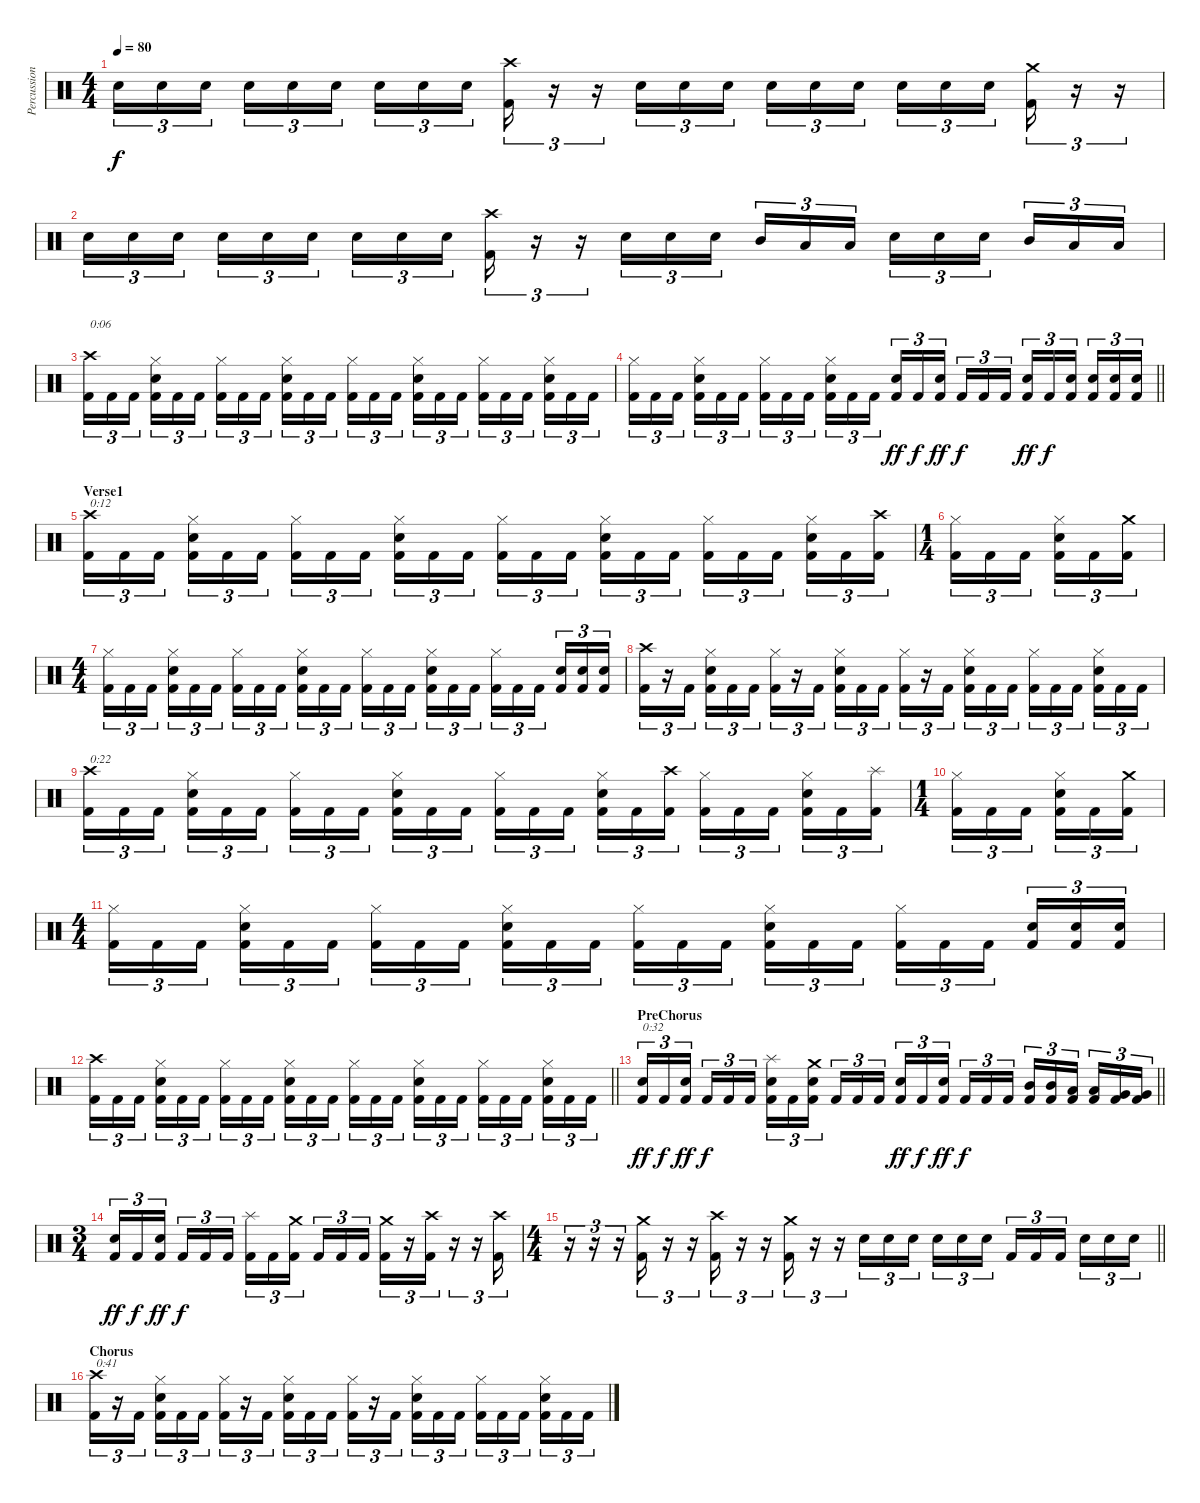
\track ("Percussion" "Percussion") {instrument percussion}
\staff {score}
\articulation defaults
\ts (4 4)
\tempo 80
\clef neutral
\ks c "Snare (hit) 2".16{tu (3 2) dy f} "Snare (hit) 2".16{tu (3 2)} "Snare (hit) 2".16{tu (3 2) beam splitsecondary} "Snare (hit) 2".16{tu (3 2)} "Snare (hit) 2".16{tu (3 2)} "Snare (hit) 2".16{tu (3 2)} "Snare (hit) 2".16{tu (3 2)} "Snare (hit) 2".16{tu (3 2)} "Snare (hit) 2".16{tu (3 2) beam splitsecondary}
("Crash high (hit)" "Kick (hit) 2").16{tu (3 2)} r.16{tu (3 2)} r.16{tu (3 2)} "Snare (hit) 2".16{tu (3 2)} "Snare (hit) 2".16{tu (3 2)} "Snare (hit) 2".16{tu (3 2) beam splitsecondary} "Snare (hit) 2".16{tu (3 2)} "Snare (hit) 2".16{tu (3 2)} "Snare (hit) 2".16{tu (3 2)} "Snare (hit) 2".16{tu (3 2)} "Snare (hit) 2".16{tu (3 2)} "Snare (hit) 2".16{tu (3 2) beam splitsecondary} ("Crash medium (hit)" "Kick (hit) 2").16{tu (3 2)} r.16{tu (3 2)} r.16{tu (3 2)} |
"Snare (hit) 2".16{tu (3 2)} "Snare (hit) 2".16{tu (3 2)} "Snare (hit) 2".16{tu (3 2) beam splitsecondary} "Snare (hit) 2".16{tu (3 2)} "Snare (hit) 2".16{tu (3 2)} "Snare (hit) 2".16{tu (3 2)} "Snare (hit) 2".16{tu (3 2)} "Snare (hit) 2".16{tu (3 2)} "Snare (hit) 2".16{tu (3 2) beam splitsecondary} ("Crash high (hit)" "Kick (hit) 2").16{tu (3 2)} r.16{tu (3 2)} r.16{tu (3 2)} "Snare (hit) 2".16{tu (3 2)} "Snare (hit) 2".16{tu (3 2)} "Snare (hit) 2".16{tu (3 2) beam splitsecondary} "Mid Tom (hit)".16{tu (3 2)} "Low Tom (hit)".16{tu (3 2)} "Low Tom (hit)".16{tu (3 2)} "Snare (hit) 2".16{tu (3 2)} "Snare (hit) 2".16{tu (3 2)} "Snare (hit) 2".16{tu (3 2) beam splitsecondary} "Mid Tom (hit)".16{tu (3 2)} "Low Tom (hit)".16{tu (3 2)} "Low Tom (hit)".16{tu (3 2)} |
("Crash high (hit)" "Kick (hit) 2").16{tu (3 2) txt "0:06"} "Kick (hit) 2".16{tu (3 2)} "Kick (hit) 2".16{tu (3 2) beam splitsecondary} ("Hi-Hat (closed)" "Snare (hit) 2" "Kick (hit) 2").16{tu (3 2)} "Kick (hit) 2".16{tu (3 2)} "Kick (hit) 2".16{tu (3 2)} ("Hi-Hat (closed)" "Kick (hit) 2").16{tu (3 2)} "Kick (hit) 2".16{tu (3 2)} "Kick (hit) 2".16{tu (3 2) beam splitsecondary} ("Hi-Hat (closed)" "Snare (hit) 2" "Kick (hit) 2").16{tu (3 2)} "Kick (hit) 2".16{tu (3 2)} "Kick (hit) 2".16{tu (3 2)} ("Hi-Hat (closed)" "Kick (hit) 2").16{tu (3 2)} "Kick (hit) 2".16{tu (3 2)} "Kick (hit) 2".16{tu (3 2) beam splitsecondary} ("Hi-Hat (closed)" "Snare (hit) 2" "Kick (hit) 2").16{tu (3 2)} "Kick (hit) 2".16{tu (3 2)} "Kick (hit) 2".16{tu (3 2)} ("Hi-Hat (closed)" "Kick (hit) 2").16{tu (3 2)} "Kick (hit) 2".16{tu (3 2)} "Kick (hit) 2".16{tu (3 2) beam splitsecondary} ("Hi-Hat (closed)" "Snare (hit) 2" "Kick (hit) 2").16{tu (3 2)} "Kick (hit) 2".16{tu (3 2)} "Kick (hit) 2".16{tu (3 2)} |
\barLineRight lightlight
("Hi-Hat (closed)" "Kick (hit) 2").16{tu (3 2)} "Kick (hit) 2".16{tu (3 2)} "Kick (hit) 2".16{tu (3 2) beam splitsecondary} ("Hi-Hat (closed)" "Snare (hit) 2" "Kick (hit) 2").16{tu (3 2)} "Kick (hit) 2".16{tu (3 2)} "Kick (hit) 2".16{tu (3 2)} ("Hi-Hat (closed)" "Kick (hit) 2").16{tu (3 2)} "Kick (hit) 2".16{tu (3 2)} "Kick (hit) 2".16{tu (3 2) beam splitsecondary} ("Hi-Hat (closed)" "Snare (hit) 2" "Kick (hit) 2").16{tu (3 2)} "Kick (hit) 2".16{tu (3 2)} "Kick (hit) 2".16{tu (3 2)} ("Snare (hit) 2" "Kick (hit) 2").16{tu (3 2) dy ff} "Kick (hit) 2".16{tu (3 2) dy f} ("Snare (hit) 2" "Kick (hit) 2").16{tu (3 2) dy ff beam splitsecondary} "Kick (hit) 2".16{tu (3 2) dy f} "Kick (hit) 2".16{tu (3 2)} "Kick (hit) 2".16{tu (3 2)} ("Snare (hit) 2" "Kick (hit) 2").16{tu (3 2) dy ff} "Kick (hit) 2".16{tu (3 2) dy f} ("Snare (hit) 2" "Kick (hit) 2").16{tu (3 2) beam splitsecondary} ("Snare (hit) 2" "Kick (hit) 2").16{tu (3 2)} ("Snare (hit) 2" "Kick (hit) 2").16{tu (3 2)} ("Snare (hit) 2" "Kick (hit) 2").16{tu (3 2)} |
\section ("" "Verse1")
("Crash high (hit)" "Kick (hit) 2").16{tu (3 2) txt "0:12"} "Kick (hit) 2".16{tu (3 2)} "Kick (hit) 2".16{tu (3 2) beam splitsecondary} ("Hi-Hat (closed)" "Snare (hit) 2" "Kick (hit) 2").16{tu (3 2)} "Kick (hit) 2".16{tu (3 2)} "Kick (hit) 2".16{tu (3 2)} ("Hi-Hat (closed)" "Kick (hit) 2").16{tu (3 2)} "Kick (hit) 2".16{tu (3 2)} "Kick (hit) 2".16{tu (3 2) beam splitsecondary} ("Hi-Hat (closed)" "Snare (hit) 2" "Kick (hit) 2").16{tu (3 2)} "Kick (hit) 2".16{tu (3 2)} "Kick (hit) 2".16{tu (3 2)} ("Hi-Hat (closed)" "Kick (hit) 2").16{tu (3 2)} "Kick (hit) 2".16{tu (3 2)} "Kick (hit) 2".16{tu (3 2) beam splitsecondary} ("Hi-Hat (closed)" "Snare (hit) 2" "Kick (hit) 2").16{tu (3 2)} "Kick (hit) 2".16{tu (3 2)} "Kick (hit) 2".16{tu (3 2)} ("Hi-Hat (closed)" "Kick (hit) 2").16{tu (3 2)} "Kick (hit) 2".16{tu (3 2)} "Kick (hit) 2".16{tu (3 2) beam splitsecondary} ("Hi-Hat (closed)" "Snare (hit) 2" "Kick (hit) 2").16{tu (3 2)} "Kick (hit) 2".16{tu (3 2)} ("Crash high (hit)" "Kick (hit) 2").16{tu (3 2)} |
\ts (1 4)
("Hi-Hat (closed)" "Kick (hit) 2").16{tu (3 2)} "Kick (hit) 2".16{tu (3 2)} "Kick (hit) 2".16{tu (3 2) beam splitsecondary} ("Hi-Hat (closed)" "Snare (hit) 2" "Kick (hit) 2").16{tu (3 2)} "Kick (hit) 2".16{tu (3 2)} ("Crash medium (hit)" "Kick (hit) 2").16{tu (3 2)} |
\ts (4 4)
("Hi-Hat (closed)" "Kick (hit) 2").16{tu (3 2)} "Kick (hit) 2".16{tu (3 2)} "Kick (hit) 2".16{tu (3 2) beam splitsecondary} ("Hi-Hat (closed)" "Snare (hit) 2" "Kick (hit) 2").16{tu (3 2)} "Kick (hit) 2".16{tu (3 2)} "Kick (hit) 2".16{tu (3 2)} ("Hi-Hat (closed)" "Kick (hit) 2").16{tu (3 2)} "Kick (hit) 2".16{tu (3 2)} "Kick (hit) 2".16{tu (3 2) beam splitsecondary} ("Hi-Hat (closed)" "Snare (hit) 2" "Kick (hit) 2").16{tu (3 2)} "Kick (hit) 2".16{tu (3 2)} "Kick (hit) 2".16{tu (3 2)} ("Hi-Hat (closed)" "Kick (hit) 2").16{tu (3 2)} "Kick (hit) 2".16{tu (3 2)} "Kick (hit) 2".16{tu (3 2) beam splitsecondary} ("Hi-Hat (closed)" "Snare (hit) 2" "Kick (hit) 2").16{tu (3 2)} "Kick (hit) 2".16{tu (3 2)} "Kick (hit) 2".16{tu (3 2)} ("Hi-Hat (closed)" "Kick (hit) 2").16{tu (3 2)} "Kick (hit) 2".16{tu (3 2)} "Kick (hit) 2".16{tu (3 2) beam splitsecondary} ("Snare (hit) 2" "Kick (hit) 2").16{tu (3 2)} ("Snare (hit) 2" "Kick (hit) 2").16{tu (3 2)} ("Snare (hit) 2" "Kick (hit) 2").16{tu (3 2)} |
("Crash high (hit)" "Kick (hit) 2").16{tu (3 2)} r.16{tu (3 2)} "Kick (hit) 2".16{tu (3 2) beam splitsecondary} ("Hi-Hat (closed)" "Snare (hit) 2" "Kick (hit) 2").16{tu (3 2)} "Kick (hit) 2".16{tu (3 2)} "Kick (hit) 2".16{tu (3 2)} ("Hi-Hat (closed)" "Kick (hit) 2").16{tu (3 2)} r.16{tu (3 2)} "Kick (hit) 2".16{tu (3 2) beam splitsecondary} ("Hi-Hat (closed)" "Snare (hit) 2" "Kick (hit) 2").16{tu (3 2)} "Kick (hit) 2".16{tu (3 2)} "Kick (hit) 2".16{tu (3 2)} ("Hi-Hat (closed)" "Kick (hit) 2").16{tu (3 2)} r.16{tu (3 2)} "Kick (hit) 2".16{tu (3 2) beam splitsecondary} ("Hi-Hat (closed)" "Snare (hit) 2" "Kick (hit) 2").16{tu (3 2)} "Kick (hit) 2".16{tu (3 2)} "Kick (hit) 2".16{tu (3 2)} ("Hi-Hat (closed)" "Kick (hit) 2").16{tu (3 2)} "Kick (hit) 2".16{tu (3 2)} "Kick (hit) 2".16{tu (3 2) beam splitsecondary} ("Hi-Hat (closed)" "Snare (hit) 2" "Kick (hit) 2").16{tu (3 2)} "Kick (hit) 2".16{tu (3 2)} "Kick (hit) 2".16{tu (3 2)} |
("Crash high (hit)" "Kick (hit) 2").16{tu (3 2) txt "0:22"} "Kick (hit) 2".16{tu (3 2)} "Kick (hit) 2".16{tu (3 2) beam splitsecondary} ("Hi-Hat (closed)" "Snare (hit) 2" "Kick (hit) 2").16{tu (3 2)} "Kick (hit) 2".16{tu (3 2)} "Kick (hit) 2".16{tu (3 2)} ("Hi-Hat (closed)" "Kick (hit) 2").16{tu (3 2)} "Kick (hit) 2".16{tu (3 2)} "Kick (hit) 2".16{tu (3 2) beam splitsecondary} ("Hi-Hat (closed)" "Snare (hit) 2" "Kick (hit) 2").16{tu (3 2)} "Kick (hit) 2".16{tu (3 2)} "Kick (hit) 2".16{tu (3 2)} ("Hi-Hat (closed)" "Kick (hit) 2").16{tu (3 2)} "Kick (hit) 2".16{tu (3 2)} "Kick (hit) 2".16{tu (3 2) beam splitsecondary} ("Hi-Hat (closed)" "Snare (hit) 2" "Kick (hit) 2").16{tu (3 2)} "Kick (hit) 2".16{tu (3 2)} ("Crash high (hit)" "Kick (hit) 2").16{tu (3 2)} ("Hi-Hat (closed)" "Kick (hit) 2").16{tu (3 2)} "Kick (hit) 2".16{tu (3 2)} "Kick (hit) 2".16{tu (3 2) beam splitsecondary} ("Hi-Hat (closed)" "Snare (hit) 2" "Kick (hit) 2").16{tu (3 2)} "Kick (hit) 2".16{tu (3 2)} ("Splash (hit)" "Kick (hit) 2").16{tu (3 2)} |
\ts (1 4)
("Hi-Hat (closed)" "Kick (hit) 2").16{tu (3 2)} "Kick (hit) 2".16{tu (3 2)} "Kick (hit) 2".16{tu (3 2) beam splitsecondary} ("Hi-Hat (closed)" "Snare (hit) 2" "Kick (hit) 2").16{tu (3 2)} "Kick (hit) 2".16{tu (3 2)} ("Crash medium (hit)" "Kick (hit) 2").16{tu (3 2)} |
\ts (4 4)
("Hi-Hat (closed)" "Kick (hit) 2").16{tu (3 2)} "Kick (hit) 2".16{tu (3 2)} "Kick (hit) 2".16{tu (3 2) beam splitsecondary} ("Hi-Hat (closed)" "Snare (hit) 2" "Kick (hit) 2").16{tu (3 2)} "Kick (hit) 2".16{tu (3 2)} "Kick (hit) 2".16{tu (3 2)} ("Hi-Hat (closed)" "Kick (hit) 2").16{tu (3 2)} "Kick (hit) 2".16{tu (3 2)} "Kick (hit) 2".16{tu (3 2) beam splitsecondary} ("Hi-Hat (closed)" "Snare (hit) 2" "Kick (hit) 2").16{tu (3 2)} "Kick (hit) 2".16{tu (3 2)} "Kick (hit) 2".16{tu (3 2)} ("Hi-Hat (closed)" "Kick (hit) 2").16{tu (3 2)} "Kick (hit) 2".16{tu (3 2)} "Kick (hit) 2".16{tu (3 2) beam splitsecondary} ("Hi-Hat (closed)" "Snare (hit) 2" "Kick (hit) 2").16{tu (3 2)} "Kick (hit) 2".16{tu (3 2)} "Kick (hit) 2".16{tu (3 2)} ("Hi-Hat (closed)" "Kick (hit) 2").16{tu (3 2)} "Kick (hit) 2".16{tu (3 2)} "Kick (hit) 2".16{tu (3 2) beam splitsecondary} ("Snare (hit) 2" "Kick (hit) 2").16{tu (3 2)} ("Snare (hit) 2" "Kick (hit) 2").16{tu (3 2)} ("Snare (hit) 2" "Kick (hit) 2").16{tu (3 2)} |
\barLineRight lightlight
("Crash high (hit)" "Kick (hit) 2").16{tu (3 2)} "Kick (hit) 2".16{tu (3 2)} "Kick (hit) 2".16{tu (3 2) beam splitsecondary} ("Hi-Hat (closed)" "Snare (hit) 2" "Kick (hit) 2").16{tu (3 2)} "Kick (hit) 2".16{tu (3 2)} "Kick (hit) 2".16{tu (3 2)} ("Hi-Hat (closed)" "Kick (hit) 2").16{tu (3 2)} "Kick (hit) 2".16{tu (3 2)} "Kick (hit) 2".16{tu (3 2) beam splitsecondary} ("Hi-Hat (closed)" "Snare (hit) 2" "Kick (hit) 2").16{tu (3 2)} "Kick (hit) 2".16{tu (3 2)} "Kick (hit) 2".16{tu (3 2)} ("Hi-Hat (closed)" "Kick (hit) 2").16{tu (3 2)} "Kick (hit) 2".16{tu (3 2)} "Kick (hit) 2".16{tu (3 2) beam splitsecondary} ("Hi-Hat (closed)" "Snare (hit) 2" "Kick (hit) 2").16{tu (3 2)} "Kick (hit) 2".16{tu (3 2)} "Kick (hit) 2".16{tu (3 2)} ("Hi-Hat (closed)" "Kick (hit) 2").16{tu (3 2)} "Kick (hit) 2".16{tu (3 2)} "Kick (hit) 2".16{tu (3 2) beam splitsecondary} ("Hi-Hat (closed)" "Snare (hit) 2" "Kick (hit) 2").16{tu (3 2)} "Kick (hit) 2".16{tu (3 2)} "Kick (hit) 2".16{tu (3 2)} |
\section ("" "PreChorus")
\barLineRight lightlight
("Snare (hit) 2" "Kick (hit) 2").16{tu (3 2) txt "0:32" dy ff} "Kick (hit) 2".16{tu (3 2) dy f} ("Snare (hit) 2" "Kick (hit) 2").16{tu (3 2) dy ff beam splitsecondary} "Kick (hit) 2".16{tu (3 2) dy f} "Kick (hit) 2".16{tu (3 2)} "Kick (hit) 2".16{tu (3 2)} ("Splash (hit)" "Snare (hit) 2" "Kick (hit) 2").16{tu (3 2)} "Kick (hit) 2".16{tu (3 2)} ("Crash medium (hit)" "Snare (hit) 2" "Kick (hit) 2").16{tu (3 2) beam splitsecondary} "Kick (hit) 2".16{tu (3 2)} "Kick (hit) 2".16{tu (3 2)} "Kick (hit) 2".16{tu (3 2)} ("Snare (hit) 2" "Kick (hit) 2").16{tu (3 2) dy ff} "Kick (hit) 2".16{tu (3 2) dy f} ("Snare (hit) 2" "Kick (hit) 2").16{tu (3 2) dy ff beam splitsecondary} "Kick (hit) 2".16{tu (3 2) dy f} "Kick (hit) 2".16{tu (3 2)} "Kick (hit) 2".16{tu (3 2)} ("Mid Tom (hit)" "Kick (hit) 2").16{tu (3 2)} ("Mid Tom (hit)" "Kick (hit) 2").16{tu (3 2)} ("Low Tom (hit)" "Kick (hit) 2").16{tu (3 2) beam splitsecondary} ("Low Tom (hit)" "Kick (hit) 2").16{tu (3 2)} ("Very Low Tom (hit)" "Kick (hit) 2").16{tu (3 2)} ("Very Low Tom (hit)" "Kick (hit) 2").16{tu (3 2)} |
\ts (3 4)
("Snare (hit) 2" "Kick (hit) 2").16{tu (3 2) dy ff} "Kick (hit) 2".16{tu (3 2) dy f} ("Snare (hit) 2" "Kick (hit) 2").16{tu (3 2) dy ff beam splitsecondary} "Kick (hit) 2".16{tu (3 2) dy f} "Kick (hit) 2".16{tu (3 2)} "Kick (hit) 2".16{tu (3 2)} ("Splash (hit)" "Kick (hit) 2").16{tu (3 2)} "Kick (hit) 2".16{tu (3 2)} ("Crash medium (hit)" "Kick (hit) 2").16{tu (3 2) beam splitsecondary} "Kick (hit) 2".16{tu (3 2)} "Kick (hit) 2".16{tu (3 2)} "Kick (hit) 2".16{tu (3 2)} ("Crash medium (hit)" "Kick (hit) 2").16{tu (3 2)} r.16{tu (3 2)} ("Crash high (hit)" "Kick (hit) 2").16{tu (3 2)} r.16{tu (3 2)} r.16{tu (3 2)} ("Crash high (hit)" "Kick (hit) 2").16{tu (3 2)} |
\ts (4 4)
\barLineRight lightlight
r.16{tu (3 2)} r.16{tu (3 2)} r.16{tu (3 2)} ("Crash medium (hit)" "Kick (hit) 2").16{tu (3 2)} r.16{tu (3 2)} r.16{tu (3 2)} ("Crash high (hit)" "Kick (hit) 2").16{tu (3 2)} r.16{tu (3 2)} r.16{tu (3 2)} ("Crash medium (hit)" "Kick (hit) 2").16{tu (3 2)} r.16{tu (3 2)} r.16{tu (3 2)} "Snare (hit) 2".16{tu (3 2)} "Snare (hit) 2".16{tu (3 2)} "Snare (hit) 2".16{tu (3 2) beam splitsecondary} "Snare (hit) 2".16{tu (3 2)} "Snare (hit) 2".16{tu (3 2)} "Snare (hit) 2".16{tu (3 2)} "Kick (hit) 2".16{tu (3 2)} "Kick (hit) 2".16{tu (3 2)} "Kick (hit) 2".16{tu (3 2) beam splitsecondary} "Snare (hit) 2".16{tu (3 2)} "Snare (hit) 2".16{tu (3 2)} "Snare (hit) 2".16{tu (3 2)} |
\section ("" "Chorus")
("Crash high (hit)" "Kick (hit) 2").16{tu (3 2) txt "0:41"} r.16{tu (3 2)} "Kick (hit) 2".16{tu (3 2) beam splitsecondary} ("Hi-Hat (closed)" "Snare (hit) 2" "Kick (hit) 2").16{tu (3 2)} "Kick (hit) 2".16{tu (3 2)} "Kick (hit) 2".16{tu (3 2)} ("Hi-Hat (closed)" "Kick (hit) 2").16{tu (3 2)} r.16{tu (3 2)} "Kick (hit) 2".16{tu (3 2) beam splitsecondary} ("Hi-Hat (closed)" "Snare (hit) 2" "Kick (hit) 2").16{tu (3 2)} "Kick (hit) 2".16{tu (3 2)} "Kick (hit) 2".16{tu (3 2)} ("Hi-Hat (closed)" "Kick (hit) 2").16{tu (3 2)} r.16{tu (3 2)} "Kick (hit) 2".16{tu (3 2) beam splitsecondary} ("Hi-Hat (closed)" "Snare (hit) 2" "Kick (hit) 2").16{tu (3 2)} "Kick (hit) 2".16{tu (3 2)} "Kick (hit) 2".16{tu (3 2)} ("Hi-Hat (closed)" "Kick (hit) 2").16{tu (3 2)} "Kick (hit) 2".16{tu (3 2)} "Kick (hit) 2".16{tu (3 2) beam splitsecondary} ("Hi-Hat (closed)" "Snare (hit) 2" "Kick (hit) 2").16{tu (3 2)} "Kick (hit) 2".16{tu (3 2)} "Kick (hit) 2".16{tu (3 2)}
